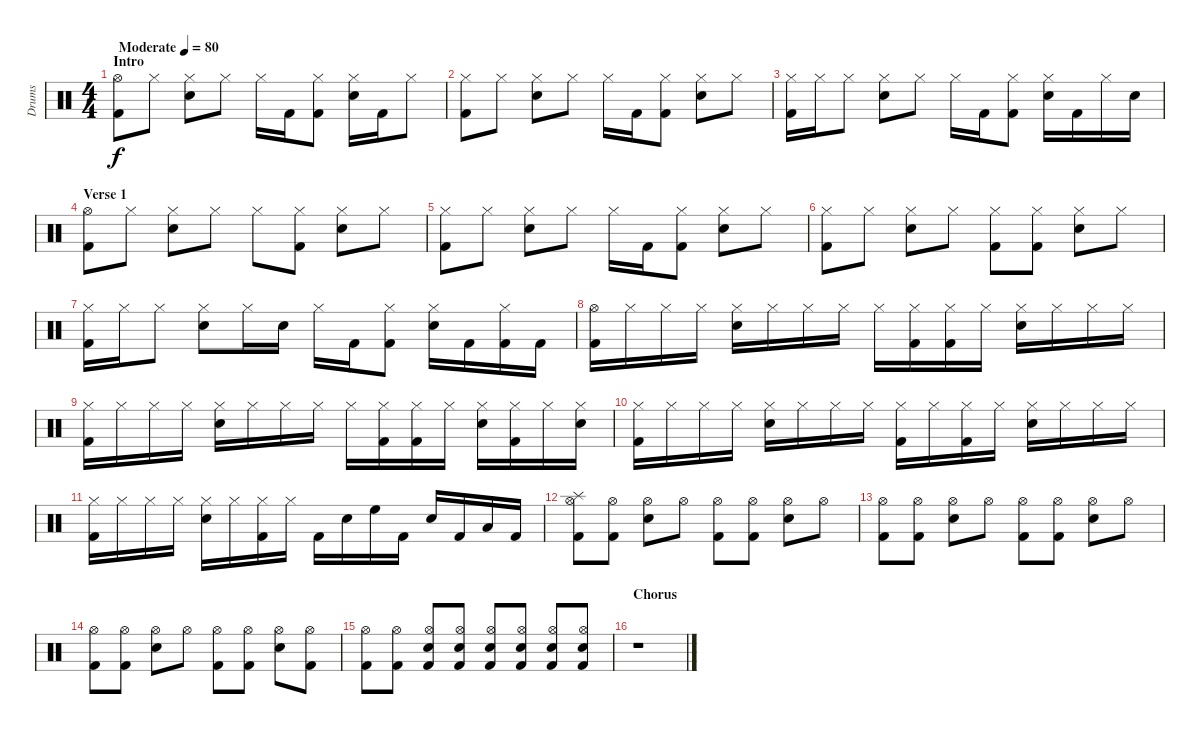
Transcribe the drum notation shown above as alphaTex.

\track ("Drums" "Drums") {instrument percussion}
\staff {score}
\articulation defaults
\ts (4 4)
\section ("" "Intro")
\tempo (80 "Moderate")
\clef neutral
\ks c
("Kick (hit) 2" "Hi-Hat (open)").8{dy f} "Hi-Hat (closed)".8 ("Snare (hit) 2" "Hi-Hat (closed)").8 "Hi-Hat (closed)".8 "Hi-Hat (closed)".16 "Kick (hit) 2".16 ("Hi-Hat (closed)" "Kick (hit) 2").8 ("Hi-Hat (closed)" "Snare (hit) 2").16 "Kick (hit) 2".16 "Hi-Hat (closed)".8 |
("Kick (hit) 2" "Hi-Hat (closed)").8 "Hi-Hat (closed)".8 ("Snare (hit) 2" "Hi-Hat (closed)").8 "Hi-Hat (closed)".8 "Hi-Hat (closed)".16 "Kick (hit) 2".16 ("Hi-Hat (closed)" "Kick (hit) 2").8 ("Hi-Hat (closed)" "Snare (hit) 2").8 "Hi-Hat (closed)".8 |
("Kick (hit) 2" "Hi-Hat (closed)").16 "Hi-Hat (closed)".16 "Hi-Hat (closed)".8 ("Snare (hit) 2" "Hi-Hat (closed)").8 "Hi-Hat (closed)".8 "Hi-Hat (closed)".16 "Kick (hit) 2".16 ("Hi-Hat (closed)" "Kick (hit) 2").8 ("Hi-Hat (closed)" "Snare (hit) 2").16 "Kick (hit) 2".16 "Hi-Hat (closed)".16 "Snare (hit) 2".16 |
\section ("" "Verse 1")
("Kick (hit) 2" "Hi-Hat (open)").8 "Hi-Hat (closed)".8 ("Snare (hit) 2" "Hi-Hat (closed)").8 "Hi-Hat (closed)".8 "Hi-Hat (closed)".8 ("Hi-Hat (closed)" "Kick (hit) 2").8 ("Hi-Hat (closed)" "Snare (hit) 2").8 "Hi-Hat (closed)".8 |
("Kick (hit) 2" "Hi-Hat (closed)").8 "Hi-Hat (closed)".8 ("Snare (hit) 2" "Hi-Hat (closed)").8 "Hi-Hat (closed)".8 "Hi-Hat (closed)".16 "Kick (hit) 2".16 ("Hi-Hat (closed)" "Kick (hit) 2").8 ("Hi-Hat (closed)" "Snare (hit) 2").8 "Hi-Hat (closed)".8 |
("Kick (hit) 2" "Hi-Hat (closed)").8 "Hi-Hat (closed)".8 ("Snare (hit) 2" "Hi-Hat (closed)").8 "Hi-Hat (closed)".8 ("Kick (hit) 2" "Hi-Hat (closed)").8 ("Kick (hit) 2" "Hi-Hat (closed)").8 ("Snare (hit) 2" "Hi-Hat (closed)").8 "Hi-Hat (closed)".8 |
("Kick (hit) 2" "Hi-Hat (closed)").16 "Hi-Hat (closed)".16 "Hi-Hat (closed)".8 ("Hi-Hat (closed)" "Snare (hit) 2").8 "Hi-Hat (closed)".16 "Snare (hit) 2".16 "Hi-Hat (closed)".16 "Kick (hit) 2".16 ("Hi-Hat (closed)" "Kick (hit) 2").8 ("Hi-Hat (closed)" "Snare (hit) 2").16 "Kick (hit) 2".16 ("Hi-Hat (closed)" "Kick (hit) 2").16 "Kick (hit) 2".16 |
("Kick (hit) 2" "Hi-Hat (open)").16 "Hi-Hat (closed)".16 "Hi-Hat (closed)".16 "Hi-Hat (closed)".16 ("Snare (hit) 2" "Hi-Hat (closed)").16 "Hi-Hat (closed)".16 "Hi-Hat (closed)".16 "Hi-Hat (closed)".16 "Hi-Hat (closed)".16 ("Hi-Hat (closed)" "Kick (hit) 2").16 ("Hi-Hat (closed)" "Kick (hit) 2").16 "Hi-Hat (closed)".16 ("Hi-Hat (closed)" "Snare (hit) 2").16 "Hi-Hat (closed)".16 "Hi-Hat (closed)".16 "Hi-Hat (closed)".16 |
("Kick (hit) 2" "Hi-Hat (closed)").16 "Hi-Hat (closed)".16 "Hi-Hat (closed)".16 "Hi-Hat (closed)".16 ("Snare (hit) 2" "Hi-Hat (closed)").16 "Hi-Hat (closed)".16 "Hi-Hat (closed)".16 "Hi-Hat (closed)".16 "Hi-Hat (closed)".16 ("Hi-Hat (closed)" "Kick (hit) 2").16 ("Hi-Hat (closed)" "Kick (hit) 2").16 "Hi-Hat (closed)".16 ("Hi-Hat (closed)" "Snare (hit) 2").16 ("Hi-Hat (closed)" "Kick (hit) 2").16 "Hi-Hat (closed)".16 ("Hi-Hat (closed)" "Snare (hit) 2").16 |
("Kick (hit) 2" "Hi-Hat (closed)").16 "Hi-Hat (closed)".16 "Hi-Hat (closed)".16 "Hi-Hat (closed)".16 ("Snare (hit) 2" "Hi-Hat (closed)").16 "Hi-Hat (closed)".16 "Hi-Hat (closed)".16 "Hi-Hat (closed)".16 ("Kick (hit) 2" "Hi-Hat (closed)").16 "Hi-Hat (closed)".16 ("Kick (hit) 2" "Hi-Hat (closed)").16 "Hi-Hat (closed)".16 ("Snare (hit) 2" "Hi-Hat (closed)").16 "Hi-Hat (closed)".16 "Hi-Hat (closed)".16 "Hi-Hat (closed)".16 |
("Hi-Hat (closed)" "Kick (hit) 2").16 "Hi-Hat (closed)".16 "Hi-Hat (closed)".16 "Hi-Hat (closed)".16 ("Hi-Hat (closed)" "Snare (hit) 2").16 "Hi-Hat (closed)".16 ("Hi-Hat (closed)" "Kick (hit) 2").16 "Hi-Hat (closed)".16 "Kick (hit) 2".16 "Snare (hit) 2".16 "High Floor Tom (hit)".16 "Kick (hit) 2".16 "Snare (hit) 2".16 "Kick (hit) 2".16 "Low Tom (hit)".16 "Kick (hit) 2".16 |
("Hi-Hat (open)" "Kick (hit) 2" "Splash (hit)").8 ("Hi-Hat (open)" "Kick (hit) 2").8 ("Hi-Hat (open)" "Snare (hit) 2").8 "Hi-Hat (open)".8 ("Hi-Hat (open)" "Kick (hit) 2").8 ("Hi-Hat (open)" "Kick (hit) 2").8 ("Hi-Hat (open)" "Snare (hit) 2").8 "Hi-Hat (open)".8 |
("Hi-Hat (open)" "Kick (hit) 2").8 ("Hi-Hat (open)" "Kick (hit) 2").8 ("Hi-Hat (open)" "Snare (hit) 2").8 "Hi-Hat (open)".8 ("Hi-Hat (open)" "Kick (hit) 2").8 ("Hi-Hat (open)" "Kick (hit) 2").8 ("Hi-Hat (open)" "Snare (hit) 2").8 "Hi-Hat (open)".8 |
("Hi-Hat (open)" "Kick (hit) 2").8 ("Hi-Hat (open)" "Kick (hit) 2").8 ("Hi-Hat (open)" "Snare (hit) 2").8 "Hi-Hat (open)".8 ("Hi-Hat (open)" "Kick (hit) 2").8 ("Hi-Hat (open)" "Kick (hit) 2").8 ("Hi-Hat (open)" "Snare (hit) 2").8 ("Hi-Hat (open)" "Kick (hit) 2").8 |
("Hi-Hat (open)" "Kick (hit) 2").8 ("Hi-Hat (open)" "Kick (hit) 2").8 ("Hi-Hat (open)" "Snare (hit) 2" "Kick (hit) 2").8 ("Hi-Hat (open)" "Snare (hit) 2" "Kick (hit) 2").8 ("Hi-Hat (open)" "Kick (hit) 2" "Snare (hit) 2").8 ("Hi-Hat (open)" "Kick (hit) 2" "Snare (hit) 2").8 ("Hi-Hat (open)" "Snare (hit) 2" "Kick (hit) 2").8 ("Hi-Hat (open)" "Snare (hit) 2" "Kick (hit) 2").8 |
\section ("" "Chorus")
r.1
